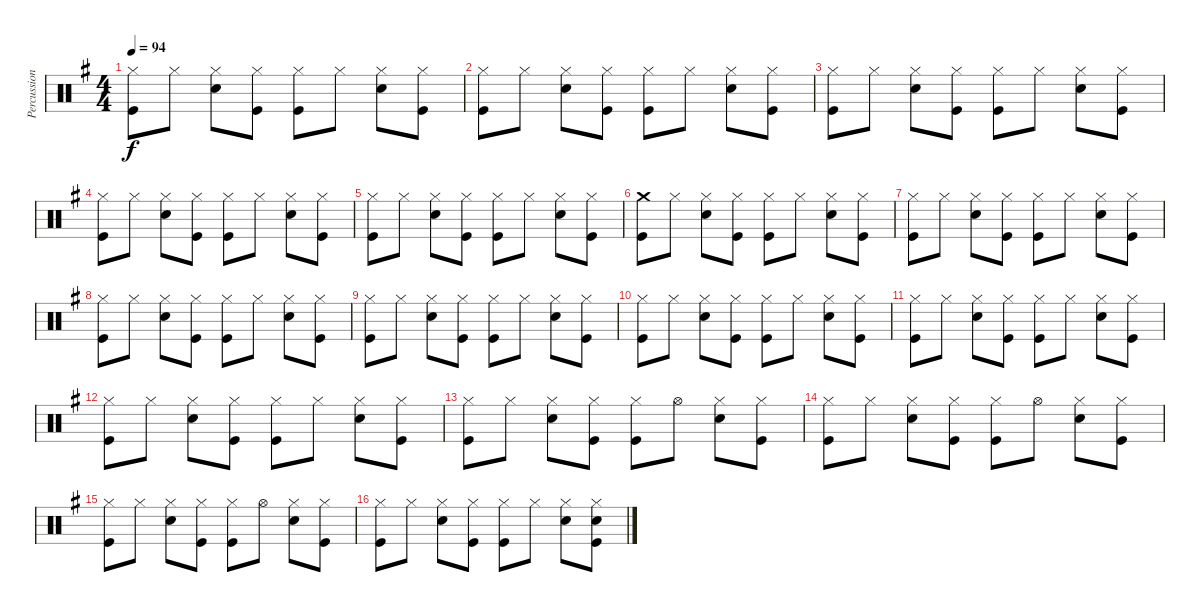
\track ("Percussion" "Percussion") {instrument percussion}
\staff {score}
\articulation defaults
\ts (4 4)
\tempo 94
\clef neutral
\ks g
("Hi-Hat (closed)" "Kick (hit)").8{dy f} "Hi-Hat (closed)".8 ("Hi-Hat (closed)" "Snare (hit) 2").8 ("Hi-Hat (closed)" "Kick (hit)").8 ("Hi-Hat (closed)" "Kick (hit)").8 "Hi-Hat (closed)".8 ("Hi-Hat (closed)" "Snare (hit) 2").8 ("Hi-Hat (closed)" "Kick (hit)").8 |
("Hi-Hat (closed)" "Kick (hit)").8 "Hi-Hat (closed)".8 ("Hi-Hat (closed)" "Snare (hit) 2").8 ("Hi-Hat (closed)" "Kick (hit)").8 ("Hi-Hat (closed)" "Kick (hit)").8 "Hi-Hat (closed)".8 ("Hi-Hat (closed)" "Snare (hit) 2").8 ("Hi-Hat (closed)" "Kick (hit)").8 |
("Hi-Hat (closed)" "Kick (hit)").8 "Hi-Hat (closed)".8 ("Hi-Hat (closed)" "Snare (hit) 2").8 ("Hi-Hat (closed)" "Kick (hit)").8 ("Hi-Hat (closed)" "Kick (hit)").8 "Hi-Hat (closed)".8 ("Hi-Hat (closed)" "Snare (hit) 2").8 ("Hi-Hat (closed)" "Kick (hit)").8 |
("Hi-Hat (closed)" "Kick (hit)").8 "Hi-Hat (closed)".8 ("Hi-Hat (closed)" "Snare (hit) 2").8 ("Hi-Hat (closed)" "Kick (hit)").8 ("Hi-Hat (closed)" "Kick (hit)").8 "Hi-Hat (closed)".8 ("Hi-Hat (closed)" "Snare (hit) 2").8 ("Hi-Hat (closed)" "Kick (hit)").8 |
("Hi-Hat (closed)" "Kick (hit)").8 "Hi-Hat (closed)".8 ("Hi-Hat (closed)" "Snare (hit) 2").8 ("Hi-Hat (closed)" "Kick (hit)").8 ("Hi-Hat (closed)" "Kick (hit)").8 "Hi-Hat (closed)".8 ("Hi-Hat (closed)" "Snare (hit) 2").8 ("Hi-Hat (closed)" "Kick (hit)").8 |
("Crash medium (hit)" "Kick (hit)").8 "Hi-Hat (closed)".8 ("Hi-Hat (closed)" "Snare (hit) 2").8 ("Hi-Hat (closed)" "Kick (hit)").8 ("Hi-Hat (closed)" "Kick (hit)").8 "Hi-Hat (closed)".8 ("Hi-Hat (closed)" "Snare (hit) 2").8 ("Hi-Hat (closed)" "Kick (hit)").8 |
("Hi-Hat (closed)" "Kick (hit)").8 "Hi-Hat (closed)".8 ("Hi-Hat (closed)" "Snare (hit) 2").8 ("Hi-Hat (closed)" "Kick (hit)").8 ("Hi-Hat (closed)" "Kick (hit)").8 "Hi-Hat (closed)".8 ("Hi-Hat (closed)" "Snare (hit) 2").8 ("Hi-Hat (closed)" "Kick (hit)").8 |
("Hi-Hat (closed)" "Kick (hit)").8 "Hi-Hat (closed)".8 ("Hi-Hat (closed)" "Snare (hit) 2").8 ("Hi-Hat (closed)" "Kick (hit)").8 ("Hi-Hat (closed)" "Kick (hit)").8 "Hi-Hat (closed)".8 ("Hi-Hat (closed)" "Snare (hit) 2").8 ("Hi-Hat (closed)" "Kick (hit)").8 |
("Hi-Hat (closed)" "Kick (hit)").8 "Hi-Hat (closed)".8 ("Hi-Hat (closed)" "Snare (hit) 2").8 ("Hi-Hat (closed)" "Kick (hit)").8 ("Hi-Hat (closed)" "Kick (hit)").8 "Hi-Hat (closed)".8 ("Hi-Hat (closed)" "Snare (hit) 2").8 ("Hi-Hat (closed)" "Kick (hit)").8 |
("Hi-Hat (closed)" "Kick (hit)").8 "Hi-Hat (closed)".8 ("Hi-Hat (closed)" "Snare (hit) 2").8 ("Hi-Hat (closed)" "Kick (hit)").8 ("Hi-Hat (closed)" "Kick (hit)").8 "Hi-Hat (closed)".8 ("Hi-Hat (closed)" "Snare (hit) 2").8 ("Hi-Hat (closed)" "Kick (hit)").8 |
("Hi-Hat (closed)" "Kick (hit)").8 "Hi-Hat (closed)".8 ("Hi-Hat (closed)" "Snare (hit) 2").8 ("Hi-Hat (closed)" "Kick (hit)").8 ("Hi-Hat (closed)" "Kick (hit)").8 "Hi-Hat (closed)".8 ("Hi-Hat (closed)" "Snare (hit) 2").8 ("Hi-Hat (closed)" "Kick (hit)").8 |
("Hi-Hat (closed)" "Kick (hit)").8 "Hi-Hat (closed)".8 ("Hi-Hat (closed)" "Snare (hit) 2").8 ("Hi-Hat (closed)" "Kick (hit)").8 ("Hi-Hat (closed)" "Kick (hit)").8 "Hi-Hat (closed)".8 ("Hi-Hat (closed)" "Snare (hit) 2").8 ("Hi-Hat (closed)" "Kick (hit)").8 |
("Hi-Hat (closed)" "Kick (hit)").8 "Hi-Hat (closed)".8 ("Hi-Hat (closed)" "Snare (hit) 2").8 ("Hi-Hat (closed)" "Kick (hit)").8 ("Hi-Hat (closed)" "Kick (hit)").8 "Hi-Hat (open)".8 ("Hi-Hat (closed)" "Snare (hit) 2").8 ("Hi-Hat (closed)" "Kick (hit)").8 |
("Hi-Hat (closed)" "Kick (hit)").8 "Hi-Hat (closed)".8 ("Hi-Hat (closed)" "Snare (hit) 2").8 ("Hi-Hat (closed)" "Kick (hit)").8 ("Hi-Hat (closed)" "Kick (hit)").8 "Hi-Hat (open)".8 ("Hi-Hat (closed)" "Snare (hit) 2").8 ("Hi-Hat (closed)" "Kick (hit)").8 |
("Hi-Hat (closed)" "Kick (hit)").8 "Hi-Hat (closed)".8 ("Hi-Hat (closed)" "Snare (hit) 2").8 ("Hi-Hat (closed)" "Kick (hit)").8 ("Hi-Hat (closed)" "Kick (hit)").8 "Hi-Hat (open)".8 ("Hi-Hat (closed)" "Snare (hit) 2").8 ("Hi-Hat (closed)" "Kick (hit)").8 |
("Hi-Hat (closed)" "Kick (hit)").8 "Hi-Hat (closed)".8 ("Hi-Hat (closed)" "Snare (hit) 2").8 ("Hi-Hat (closed)" "Kick (hit)").8 ("Hi-Hat (closed)" "Kick (hit)").8 "Hi-Hat (closed)".8 ("Hi-Hat (closed)" "Snare (hit) 2").8 ("Hi-Hat (closed)" "Snare (hit) 2" "Kick (hit)").8
